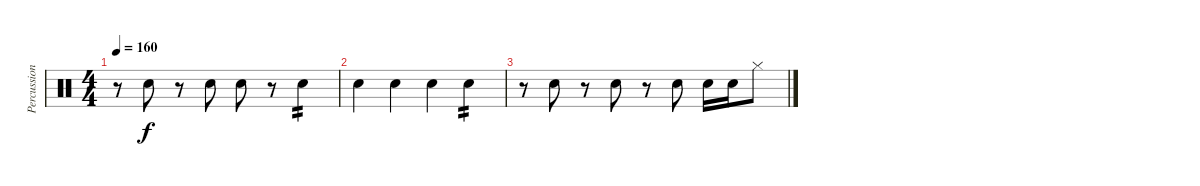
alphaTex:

\track ("Percussion" "Percussion") {instrument percussion}
\staff {score}
\articulation defaults
\ts (4 4)
\tempo 160
\clef neutral
\ks c
r.8{dy f} "Electric Snare (hit)".8 r.8 "Electric Snare (hit)".8 "Electric Snare (hit)".8 r.8 "Electric Snare (hit)".4{tp 2} |
"Electric Snare (hit)".4 "Electric Snare (hit)".4 "Electric Snare (hit)".4 "Electric Snare (hit)".4{tp 2} |
r.8 "Electric Snare (hit)".8 r.8 "Electric Snare (hit)".8 r.8 "Electric Snare (hit)".8 "Electric Snare (hit)".16 "Electric Snare (hit)".16 "Hi-Hat (closed)".8
